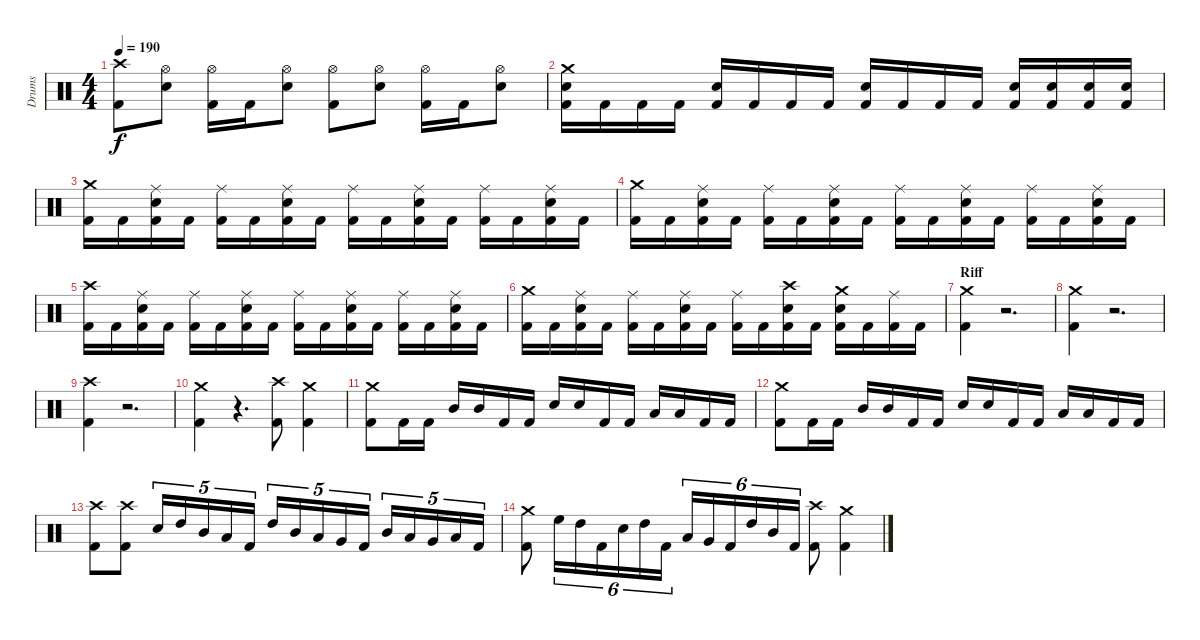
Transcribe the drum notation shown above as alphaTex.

\track ("Drums" "Drums") {instrument percussion}
\staff {score}
\articulation defaults
\ts (4 4)
\tempo 190
\clef neutral
\ks c
("Crash high (hit)" "Kick (hit) 2").8{dy f} ("Hi-Hat (open)" "Snare (hit) 2").8 ("Hi-Hat (open)" "Kick (hit) 2").16 "Kick (hit) 2".16 ("Hi-Hat (open)" "Snare (hit) 2").8 ("Hi-Hat (open)" "Kick (hit) 2").8 ("Hi-Hat (open)" "Snare (hit) 2").8 ("Hi-Hat (open)" "Kick (hit) 2").16 "Kick (hit) 2".16 ("Hi-Hat (open)" "Snare (hit) 2").8 |
("Crash medium (hit)" "Snare (hit) 2" "Kick (hit) 2").16 "Kick (hit) 2".16 "Kick (hit) 2".16 "Kick (hit) 2".16 ("Snare (hit) 2" "Kick (hit) 2").16 "Kick (hit) 2".16 "Kick (hit) 2".16 "Kick (hit) 2".16 ("Snare (hit) 2" "Kick (hit) 2").16 "Kick (hit) 2".16 "Kick (hit) 2".16 "Kick (hit) 2".16 ("Snare (hit) 2" "Kick (hit) 2").16 ("Snare (hit) 2" "Kick (hit) 2").16 ("Snare (hit) 2" "Kick (hit) 2").16 ("Snare (hit) 2" "Kick (hit) 2").16 |
("Crash medium (hit)" "Kick (hit) 2").16 "Kick (hit) 2".16 ("Ride (middle)" "Snare (hit) 2" "Kick (hit) 2").16 "Kick (hit) 2".16 ("Ride (middle)" "Kick (hit) 2").16 "Kick (hit) 2".16 ("Ride (middle)" "Snare (hit) 2" "Kick (hit) 2").16 "Kick (hit) 2".16 ("Ride (middle)" "Kick (hit) 2").16 "Kick (hit) 2".16 ("Ride (middle)" "Snare (hit) 2" "Kick (hit) 2").16 "Kick (hit) 2".16 ("Ride (middle)" "Kick (hit) 2").16 "Kick (hit) 2".16 ("Ride (middle)" "Snare (hit) 2" "Kick (hit) 2").16 "Kick (hit) 2".16 |
("Crash medium (hit)" "Kick (hit) 2").16 "Kick (hit) 2".16 ("Ride (middle)" "Snare (hit) 2" "Kick (hit) 2").16 "Kick (hit) 2".16 ("Ride (middle)" "Kick (hit) 2").16 "Kick (hit) 2".16 ("Ride (middle)" "Snare (hit) 2" "Kick (hit) 2").16 "Kick (hit) 2".16 ("Ride (middle)" "Kick (hit) 2").16 "Kick (hit) 2".16 ("Ride (middle)" "Snare (hit) 2" "Kick (hit) 2").16 "Kick (hit) 2".16 ("Ride (middle)" "Kick (hit) 2").16 "Kick (hit) 2".16 ("Ride (middle)" "Snare (hit) 2" "Kick (hit) 2").16 "Kick (hit) 2".16 |
("Crash high (hit)" "Kick (hit) 2").16 "Kick (hit) 2".16 ("Ride (middle)" "Snare (hit) 2" "Kick (hit) 2").16 "Kick (hit) 2".16 ("Ride (middle)" "Kick (hit) 2").16 "Kick (hit) 2".16 ("Ride (middle)" "Snare (hit) 2" "Kick (hit) 2").16 "Kick (hit) 2".16 ("Ride (middle)" "Kick (hit) 2").16 "Kick (hit) 2".16 ("Ride (middle)" "Snare (hit) 2" "Kick (hit) 2").16 "Kick (hit) 2".16 ("Ride (middle)" "Kick (hit) 2").16 "Kick (hit) 2".16 ("Ride (middle)" "Snare (hit) 2" "Kick (hit) 2").16 "Kick (hit) 2".16 |
("Crash medium (hit)" "Kick (hit) 2").16 "Kick (hit) 2".16 ("Ride (middle)" "Snare (hit) 2" "Kick (hit) 2").16 "Kick (hit) 2".16 ("Ride (middle)" "Kick (hit) 2").16 "Kick (hit) 2".16 ("Ride (middle)" "Snare (hit) 2" "Kick (hit) 2").16 "Kick (hit) 2".16 ("Ride (middle)" "Kick (hit) 2").16 "Kick (hit) 2".16 ("Crash high (hit)" "Snare (hit) 2" "Kick (hit) 2").16 "Kick (hit) 2".16 ("Crash medium (hit)" "Snare (hit) 2" "Kick (hit) 2").16 "Kick (hit) 2".16 ("Ride (middle)" "Kick (hit) 2").16 "Kick (hit) 2".16 |
\section ("" "Riff")
("Crash medium (hit)" "Kick (hit) 2").4 r.2{d} |
("Crash medium (hit)" "Kick (hit) 2").4 r.2{d} |
("Crash high (hit)" "Kick (hit) 2").4 r.2{d} |
("Crash medium (hit)" "Kick (hit) 2").4 r.4{d} ("Crash high (hit)" "Kick (hit) 2").8 ("Crash medium (hit)" "Kick (hit) 2").4 |
("Crash medium (hit)" "Kick (hit) 2").8 "Kick (hit) 2".16 "Kick (hit) 2".16 "Mid Tom (hit)".16 "Mid Tom (hit)".16 "Kick (hit) 2".16 "Kick (hit) 2".16 "Snare (hit) 2".16 "Snare (hit) 2".16 "Kick (hit) 2".16 "Kick (hit) 2".16 "Low Tom (hit)".16 "Low Tom (hit)".16 "Kick (hit) 2".16 "Kick (hit) 2".16 |
("Crash medium (hit)" "Kick (hit) 2").8 "Kick (hit) 2".16 "Kick (hit) 2".16 "Mid Tom (hit)".16 "Mid Tom (hit)".16 "Kick (hit) 2".16 "Kick (hit) 2".16 "Snare (hit) 2".16 "Snare (hit) 2".16 "Kick (hit) 2".16 "Kick (hit) 2".16 "Low Tom (hit)".16 "Low Tom (hit)".16 "Kick (hit) 2".16 "Kick (hit) 2".16 |
("Crash high (hit)" "Kick (hit) 2").8 ("Crash high (hit)" "Kick (hit) 2").8 "Snare (hit) 2".16{tu (5 4)} "High Tom (hit)".16{tu (5 4)} "Mid Tom (hit)".16{tu (5 4)} "Low Tom (hit)".16{tu (5 4)} "Kick (hit) 2".16{tu (5 4)} "High Tom (hit)".16{tu (5 4)} "Mid Tom (hit)".16{tu (5 4)} "Low Tom (hit)".16{tu (5 4)} "Very Low Tom (hit)".16{tu (5 4)} "Kick (hit) 2".16{tu (5 4)} "Mid Tom (hit)".16{tu (5 4)} "Low Tom (hit)".16{tu (5 4)} "Very Low Tom (hit)".16{tu (5 4)} "Low Floor Tom (hit)".16{tu (5 4)} "Kick (hit) 2".16{tu (5 4)} |
("Crash medium (hit)" "Kick (hit) 2").8 "High Floor Tom (hit)".16{tu (6 4)} "High Tom (hit)".16{tu (6 4)} "Kick (hit) 2".16{tu (6 4)} "Snare (hit) 2".16{tu (6 4)} "High Tom (hit)".16{tu (6 4)} "Kick (hit) 2".16{tu (6 4)} "Low Tom (hit)".16{tu (6 4)} "Very Low Tom (hit)".16{tu (6 4)} "Kick (hit) 2".16{tu (6 4)} "High Tom (hit)".16{tu (6 4)} "Mid Tom (hit)".16{tu (6 4)} "Kick (hit) 2".16{tu (6 4)} ("Crash high (hit)" "Kick (hit) 2").8 ("Crash medium (hit)" "Kick (hit) 2").4
